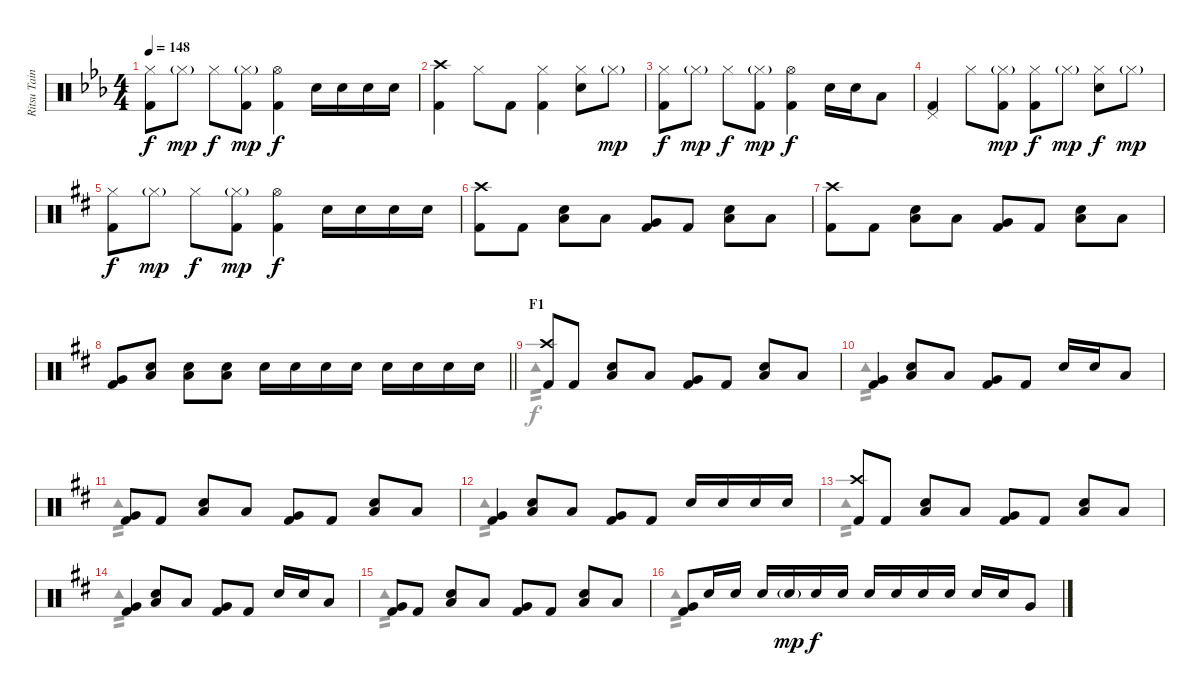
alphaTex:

\track ("Ritsu Tainaka" "Ritsu Tain") {instrument percussion}
\staff {score}
\articulation defaults
\voice
\ts (4 4)
\tempo 148
\clef neutral
\ks eb
("Hi-Hat (closed)" "Kick (hit) 2").8{dy f} "Hi-Hat (closed)"{g}.8{dy mp} "Hi-Hat (closed)".8{dy f} ("Hi-Hat (closed)"{g} "Kick (hit) 2").8{dy mp} ("Hi-Hat (open)" "Kick (hit) 2").4{dy f} "Snare (hit) 2".16 "Snare (hit) 2".16 "Snare (hit) 2".16 "Snare (hit) 2".16 |
("Crash high (hit)" "Kick (hit) 2").4 "Hi-Hat (closed)".8 "Kick (hit) 2".8 ("Hi-Hat (closed)" "Kick (hit) 2").4 ("Hi-Hat (closed)" "Snare (hit) 2").8 "Hi-Hat (closed)"{g}.8{dy mp} |
("Hi-Hat (closed)" "Kick (hit) 2").8{dy f} "Hi-Hat (closed)"{g}.8{dy mp} "Hi-Hat (closed)".8{dy f} ("Hi-Hat (closed)"{g} "Kick (hit) 2").8{dy mp} ("Hi-Hat (open)" "Kick (hit) 2").4{dy f} "Snare (hit) 2".16 "Snare (hit) 2".16 "Low Tom (hit)".8 |
("Pedal Hi-Hat (hit)" "Kick (hit) 2").4 "Hi-Hat (closed)".8 ("Hi-Hat (closed)"{g} "Kick (hit) 2").8{dy mp} ("Hi-Hat (closed)" "Kick (hit) 2").8{dy f} "Hi-Hat (closed)"{g}.8{dy mp} ("Hi-Hat (closed)" "Snare (hit) 2").8{dy f} "Hi-Hat (closed)"{g}.8{dy mp} |
\ks d
("Hi-Hat (closed)" "Kick (hit) 2").8{dy f} "Hi-Hat (closed)"{g}.8{dy mp} "Hi-Hat (closed)".8{dy f} ("Hi-Hat (closed)"{g} "Kick (hit) 2").8{dy mp} ("Hi-Hat (open)" "Kick (hit) 2").4{dy f} "Snare (hit) 2".16 "Snare (hit) 2".16 "Snare (hit) 2".16 "Snare (hit) 2".16 |
("Crash high (hit)" "Kick (hit) 2").8 "Kick (hit) 2".8 ("Snare (hit) 2" "Low Floor Tom (hit)").8 "Low Tom (hit)".8 ("Very Low Tom (hit)" "Kick (hit) 2").8 "Kick (hit) 2".8 ("Snare (hit) 2" "Low Floor Tom (hit)").8 "Low Tom (hit)".8 |
("Crash high (hit)" "Kick (hit) 2").8 "Kick (hit) 2".8 ("Snare (hit) 2" "Low Floor Tom (hit)").8 "Low Tom (hit)".8 ("Very Low Tom (hit)" "Kick (hit) 2").8 "Kick (hit) 2".8 ("Snare (hit) 2" "Low Floor Tom (hit)").8 "Low Tom (hit)".8 |
\barLineRight lightlight
("Very Low Tom (hit)" "Kick (hit) 2").8 ("Snare (hit) 2" "Low Floor Tom (hit)").8 ("Snare (hit) 2" "Low Floor Tom (hit)").8 ("Snare (hit) 2" "Low Floor Tom (hit)").8 "Snare (hit) 2".16 "Snare (hit) 2".16 "Snare (hit) 2".16 "Snare (hit) 2".16 "Snare (hit) 2".16 "Snare (hit) 2".16 "Snare (hit) 2".16 "Snare (hit) 2".16 |
\section ("" "F1")
("Crash high (hit)" "Kick (hit) 2").8 "Kick (hit) 2".8 ("Snare (hit) 2" "Low Floor Tom (hit)").8 "Low Tom (hit)".8 ("Very Low Tom (hit)" "Kick (hit) 2").8 "Kick (hit) 2".8 ("Snare (hit) 2" "Low Floor Tom (hit)").8 "Low Tom (hit)".8 |
("Very Low Tom (hit)" "Kick (hit) 2").4 ("Snare (hit) 2" "Low Floor Tom (hit)").8 "Low Tom (hit)".8 ("Very Low Tom (hit)" "Kick (hit) 2").8 "Kick (hit) 2".8 "Snare (hit) 2".16 "Snare (hit) 2".16 "Low Tom (hit)".8 |
("Very Low Tom (hit)" "Kick (hit) 2").8 "Kick (hit) 2".8 ("Snare (hit) 2" "Low Floor Tom (hit)").8 "Low Tom (hit)".8 ("Very Low Tom (hit)" "Kick (hit) 2").8 "Kick (hit) 2".8 ("Snare (hit) 2" "Low Floor Tom (hit)").8 "Low Tom (hit)".8 |
("Very Low Tom (hit)" "Kick (hit) 2").4 ("Snare (hit) 2" "Low Floor Tom (hit)").8 "Low Tom (hit)".8 ("Very Low Tom (hit)" "Kick (hit) 2").8 "Kick (hit) 2".8 "Snare (hit) 2".16 "Snare (hit) 2".16 "Snare (hit) 2".16 "Snare (hit) 2".16 |
("Crash high (hit)" "Kick (hit) 2").8 "Kick (hit) 2".8 ("Snare (hit) 2" "Low Floor Tom (hit)").8 "Low Tom (hit)".8 ("Very Low Tom (hit)" "Kick (hit) 2").8 "Kick (hit) 2".8 ("Snare (hit) 2" "Low Floor Tom (hit)").8 "Low Tom (hit)".8 |
("Very Low Tom (hit)" "Kick (hit) 2").4 ("Snare (hit) 2" "Low Floor Tom (hit)").8 "Low Tom (hit)".8 ("Very Low Tom (hit)" "Kick (hit) 2").8 "Kick (hit) 2".8 "Snare (hit) 2".16 "Snare (hit) 2".16 "Low Tom (hit)".8 |
("Very Low Tom (hit)" "Kick (hit) 2").8 "Kick (hit) 2".8 ("Snare (hit) 2" "Low Floor Tom (hit)").8 "Low Tom (hit)".8 ("Very Low Tom (hit)" "Kick (hit) 2").8 "Kick (hit) 2".8 ("Snare (hit) 2" "Low Floor Tom (hit)").8 "Low Tom (hit)".8 |
("Very Low Tom (hit)" "Kick (hit) 2").8 "Snare (hit) 2".16 "Snare (hit) 2".16 "Snare (hit) 2".16 "Snare (hit) 2"{g}.16{dy mp} "Snare (hit) 2".16{dy f} "Snare (hit) 2".16 "Snare (hit) 2".16 "Snare (hit) 2".16 "Snare (hit) 2".16 "Snare (hit) 2".16 "Snare (hit) 2".16 "Snare (hit) 2".16 "Very Low Tom (hit)".8
\voice
\clef neutral
\ottava regular
\simile none
\ks eb
|
|
|
|
\ks d
|
|
|
\barLineRight lightlight
|
"Tambourine (hit)".1{tp 2} |
"Tambourine (hit)".1{tp 2} |
"Tambourine (hit)".1{tp 2} |
"Tambourine (hit)".1{tp 2} |
"Tambourine (hit)".1{tp 2} |
"Tambourine (hit)".1{tp 2} |
"Tambourine (hit)".1{tp 2} |
"Tambourine (hit)".1{tp 2}
